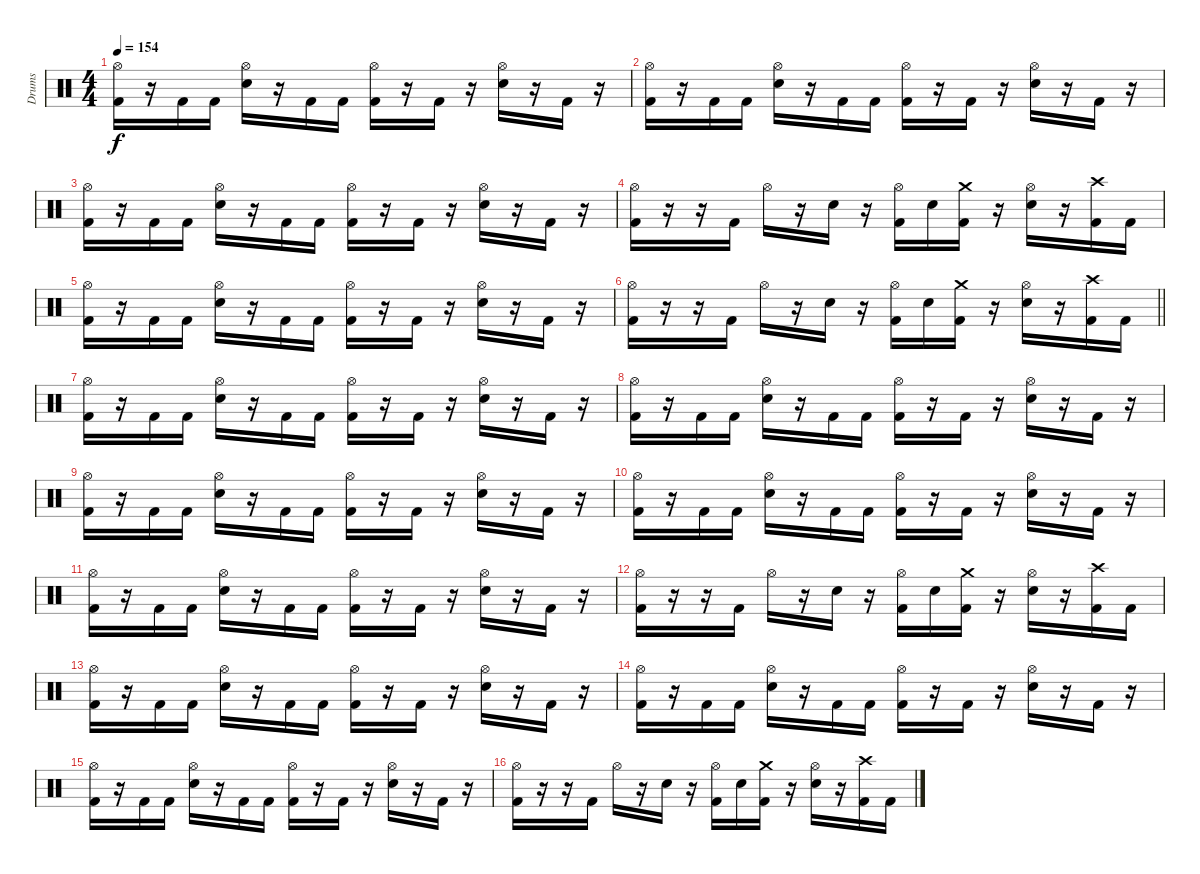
\track ("Drums" "Drums") {instrument percussion}
\staff {score}
\articulation defaults
\ts (4 4)
\tempo 154
\clef neutral
\ks c
("Hi-Hat (open)" "Kick (hit) 2").16{dy f} r.16 "Kick (hit) 2".16 "Kick (hit) 2".16 ("Hi-Hat (open)" "Snare (hit) 2").16 r.16 "Kick (hit) 2".16 "Kick (hit) 2".16 ("Hi-Hat (open)" "Kick (hit) 2").16 r.16 "Kick (hit) 2".16 r.16 ("Hi-Hat (open)" "Snare (hit) 2").16 r.16 "Kick (hit) 2".16 r.16 |
("Hi-Hat (open)" "Kick (hit) 2").16 r.16 "Kick (hit) 2".16 "Kick (hit) 2".16 ("Hi-Hat (open)" "Snare (hit) 2").16 r.16 "Kick (hit) 2".16 "Kick (hit) 2".16 ("Hi-Hat (open)" "Kick (hit) 2").16 r.16 "Kick (hit) 2".16 r.16 ("Hi-Hat (open)" "Snare (hit) 2").16 r.16 "Kick (hit) 2".16 r.16 |
("Hi-Hat (open)" "Kick (hit) 2").16 r.16 "Kick (hit) 2".16 "Kick (hit) 2".16 ("Hi-Hat (open)" "Snare (hit) 2").16 r.16 "Kick (hit) 2".16 "Kick (hit) 2".16 ("Hi-Hat (open)" "Kick (hit) 2").16 r.16 "Kick (hit) 2".16 r.16 ("Hi-Hat (open)" "Snare (hit) 2").16 r.16 "Kick (hit) 2".16 r.16 |
("Hi-Hat (open)" "Kick (hit) 2").16 r.16 r.16 "Kick (hit) 2".16 "Hi-Hat (open)".16 r.16 "Snare (hit) 2".16 r.16 ("Hi-Hat (open)" "Kick (hit) 2").16 "Snare (hit) 2".16 ("Crash medium (hit)" "Kick (hit) 2").16 r.16 ("Hi-Hat (open)" "Snare (hit) 2").16 r.16 ("Crash high (hit)" "Kick (hit) 2").16 "Kick (hit) 2".16 |
("Hi-Hat (open)" "Kick (hit) 2").16 r.16 "Kick (hit) 2".16 "Kick (hit) 2".16 ("Hi-Hat (open)" "Snare (hit) 2").16 r.16 "Kick (hit) 2".16 "Kick (hit) 2".16 ("Hi-Hat (open)" "Kick (hit) 2").16 r.16 "Kick (hit) 2".16 r.16 ("Hi-Hat (open)" "Snare (hit) 2").16 r.16 "Kick (hit) 2".16 r.16 |
\barLineRight lightlight
("Hi-Hat (open)" "Kick (hit) 2").16 r.16 r.16 "Kick (hit) 2".16 "Hi-Hat (open)".16 r.16 "Snare (hit) 2".16 r.16 ("Hi-Hat (open)" "Kick (hit) 2").16 "Snare (hit) 2".16 ("Crash medium (hit)" "Kick (hit) 2").16 r.16 ("Hi-Hat (open)" "Snare (hit) 2").16 r.16 ("Crash high (hit)" "Kick (hit) 2").16 "Kick (hit) 2".16 |
("Hi-Hat (open)" "Kick (hit) 2").16 r.16 "Kick (hit) 2".16 "Kick (hit) 2".16 ("Hi-Hat (open)" "Snare (hit) 2").16 r.16 "Kick (hit) 2".16 "Kick (hit) 2".16 ("Hi-Hat (open)" "Kick (hit) 2").16 r.16 "Kick (hit) 2".16 r.16 ("Hi-Hat (open)" "Snare (hit) 2").16 r.16 "Kick (hit) 2".16 r.16 |
("Hi-Hat (open)" "Kick (hit) 2").16 r.16 "Kick (hit) 2".16 "Kick (hit) 2".16 ("Hi-Hat (open)" "Snare (hit) 2").16 r.16 "Kick (hit) 2".16 "Kick (hit) 2".16 ("Hi-Hat (open)" "Kick (hit) 2").16 r.16 "Kick (hit) 2".16 r.16 ("Hi-Hat (open)" "Snare (hit) 2").16 r.16 "Kick (hit) 2".16 r.16 |
("Hi-Hat (open)" "Kick (hit) 2").16 r.16 "Kick (hit) 2".16 "Kick (hit) 2".16 ("Hi-Hat (open)" "Snare (hit) 2").16 r.16 "Kick (hit) 2".16 "Kick (hit) 2".16 ("Hi-Hat (open)" "Kick (hit) 2").16 r.16 "Kick (hit) 2".16 r.16 ("Hi-Hat (open)" "Snare (hit) 2").16 r.16 "Kick (hit) 2".16 r.16 |
("Hi-Hat (open)" "Kick (hit) 2").16 r.16 "Kick (hit) 2".16 "Kick (hit) 2".16 ("Hi-Hat (open)" "Snare (hit) 2").16 r.16 "Kick (hit) 2".16 "Kick (hit) 2".16 ("Hi-Hat (open)" "Kick (hit) 2").16 r.16 "Kick (hit) 2".16 r.16 ("Hi-Hat (open)" "Snare (hit) 2").16 r.16 "Kick (hit) 2".16 r.16 |
("Hi-Hat (open)" "Kick (hit) 2").16 r.16 "Kick (hit) 2".16 "Kick (hit) 2".16 ("Hi-Hat (open)" "Snare (hit) 2").16 r.16 "Kick (hit) 2".16 "Kick (hit) 2".16 ("Hi-Hat (open)" "Kick (hit) 2").16 r.16 "Kick (hit) 2".16 r.16 ("Hi-Hat (open)" "Snare (hit) 2").16 r.16 "Kick (hit) 2".16 r.16 |
("Hi-Hat (open)" "Kick (hit) 2").16 r.16 r.16 "Kick (hit) 2".16 "Hi-Hat (open)".16 r.16 "Snare (hit) 2".16 r.16 ("Hi-Hat (open)" "Kick (hit) 2").16 "Snare (hit) 2".16 ("Crash medium (hit)" "Kick (hit) 2").16 r.16 ("Hi-Hat (open)" "Snare (hit) 2").16 r.16 ("Crash high (hit)" "Kick (hit) 2").16 "Kick (hit) 2".16 |
("Hi-Hat (open)" "Kick (hit) 2").16 r.16 "Kick (hit) 2".16 "Kick (hit) 2".16 ("Hi-Hat (open)" "Snare (hit) 2").16 r.16 "Kick (hit) 2".16 "Kick (hit) 2".16 ("Hi-Hat (open)" "Kick (hit) 2").16 r.16 "Kick (hit) 2".16 r.16 ("Hi-Hat (open)" "Snare (hit) 2").16 r.16 "Kick (hit) 2".16 r.16 |
("Hi-Hat (open)" "Kick (hit) 2").16 r.16 "Kick (hit) 2".16 "Kick (hit) 2".16 ("Hi-Hat (open)" "Snare (hit) 2").16 r.16 "Kick (hit) 2".16 "Kick (hit) 2".16 ("Hi-Hat (open)" "Kick (hit) 2").16 r.16 "Kick (hit) 2".16 r.16 ("Hi-Hat (open)" "Snare (hit) 2").16 r.16 "Kick (hit) 2".16 r.16 |
("Hi-Hat (open)" "Kick (hit) 2").16 r.16 "Kick (hit) 2".16 "Kick (hit) 2".16 ("Hi-Hat (open)" "Snare (hit) 2").16 r.16 "Kick (hit) 2".16 "Kick (hit) 2".16 ("Hi-Hat (open)" "Kick (hit) 2").16 r.16 "Kick (hit) 2".16 r.16 ("Hi-Hat (open)" "Snare (hit) 2").16 r.16 "Kick (hit) 2".16 r.16 |
("Hi-Hat (open)" "Kick (hit) 2").16 r.16 r.16 "Kick (hit) 2".16 "Hi-Hat (open)".16 r.16 "Snare (hit) 2".16 r.16 ("Hi-Hat (open)" "Kick (hit) 2").16 "Snare (hit) 2".16 ("Crash medium (hit)" "Kick (hit) 2").16 r.16 ("Hi-Hat (open)" "Snare (hit) 2").16 r.16 ("Crash high (hit)" "Kick (hit) 2").16 "Kick (hit) 2".16
